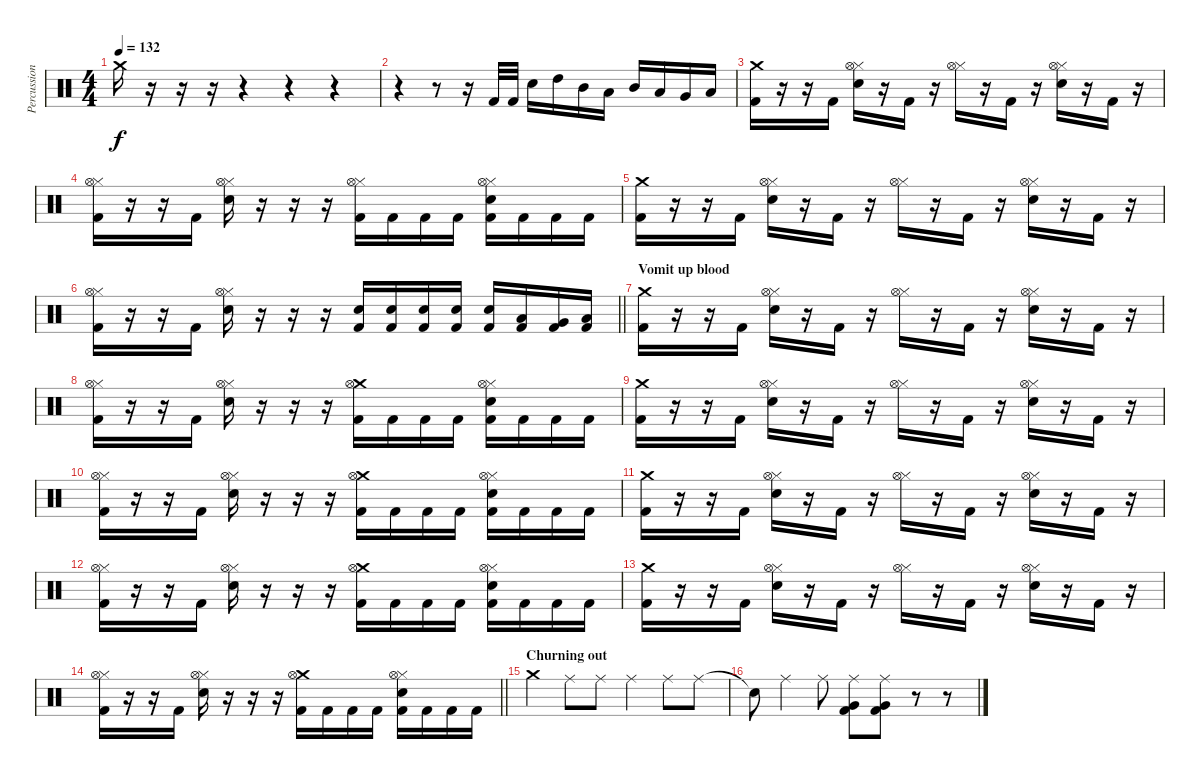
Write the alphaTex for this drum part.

\track ("Percussion" "Percussion") {instrument percussion}
\staff {score}
\articulation defaults
\ts (4 4)
\tempo 132
\clef neutral
\ks c "Crash medium (hit)".16{dy f}
r.16 r.16 r.16 r.4 r.4 r.4 |
r.4 r.8 r.16 "Kick (hit) 2".32 "Kick (hit) 2".32 "Snare (hit) 2".16 "High Tom (hit)".16 "Mid Tom (hit)".16 "Low Tom (hit)".16 "Mid Tom (hit)".16 "Low Tom (hit)".16 "Very Low Tom (hit)".16 "Low Floor Tom (hit)".16 |
("Crash medium (hit)" "Kick (hit) 2").16 r.16 r.16 "Kick (hit) 2".16 ("Hi-Hat (closed)" "Snare (hit) 2" "Hi-Hat (open)").16 r.16 "Kick (hit) 2".16 r.16 ("Hi-Hat (closed)" "Hi-Hat (open)").16 r.16 "Kick (hit) 2".16 r.16 ("Hi-Hat (closed)" "Snare (hit) 2" "Hi-Hat (open)").16 r.16 "Kick (hit) 2".16 r.16 |
("Hi-Hat (closed)" "Kick (hit) 2" "Hi-Hat (open)").16 r.16 r.16 "Kick (hit) 2".16 ("Hi-Hat (closed)" "Snare (hit) 2" "Hi-Hat (open)").16 r.16 r.16 r.16 ("Hi-Hat (closed)" "Kick (hit) 2" "Hi-Hat (open)").16 "Kick (hit) 2".16 "Kick (hit) 2".16 "Kick (hit) 2".16 ("Hi-Hat (closed)" "Snare (hit) 2" "Kick (hit) 2" "Hi-Hat (open)").16 "Kick (hit) 2".16 "Kick (hit) 2".16 "Kick (hit) 2".16 |
("Crash medium (hit)" "Kick (hit) 2").16 r.16 r.16 "Kick (hit) 2".16 ("Hi-Hat (closed)" "Snare (hit) 2" "Hi-Hat (open)").16 r.16 "Kick (hit) 2".16 r.16 ("Hi-Hat (closed)" "Hi-Hat (open)").16 r.16 "Kick (hit) 2".16 r.16 ("Hi-Hat (closed)" "Snare (hit) 2" "Hi-Hat (open)").16 r.16 "Kick (hit) 2".16 r.16 |
\barLineRight lightlight
("Hi-Hat (closed)" "Kick (hit) 2" "Hi-Hat (open)").16 r.16 r.16 "Kick (hit) 2".16 ("Hi-Hat (closed)" "Snare (hit) 2" "Hi-Hat (open)").16 r.16 r.16 r.16 ("Snare (hit) 2" "Kick (hit) 2").16 ("Snare (hit) 2" "Kick (hit) 2").16 ("Snare (hit) 2" "Kick (hit) 2").16 ("Snare (hit) 2" "Kick (hit) 2").16 ("Snare (hit) 2" "Kick (hit) 2").16 ("Low Tom (hit)" "Kick (hit) 2").16 ("Very Low Tom (hit)" "Kick (hit) 2").16 ("Low Floor Tom (hit)" "Kick (hit) 2").16 |
\section ("" "Vomit up blood")
("Crash medium (hit)" "Kick (hit) 2").16 r.16 r.16 "Kick (hit) 2".16 ("Hi-Hat (closed)" "Snare (hit) 2" "Hi-Hat (open)").16 r.16 "Kick (hit) 2".16 r.16 ("Hi-Hat (closed)" "Hi-Hat (open)").16 r.16 "Kick (hit) 2".16 r.16 ("Hi-Hat (closed)" "Snare (hit) 2" "Hi-Hat (open)").16 r.16 "Kick (hit) 2".16 r.16 |
("Hi-Hat (closed)" "Kick (hit) 2" "Hi-Hat (open)").16 r.16 r.16 "Kick (hit) 2".16 ("Hi-Hat (closed)" "Snare (hit) 2" "Hi-Hat (open)").16 r.16 r.16 r.16 ("Crash medium (hit)" "Kick (hit) 2" "Hi-Hat (open)").16 "Kick (hit) 2".16 "Kick (hit) 2".16 "Kick (hit) 2".16 ("Hi-Hat (closed)" "Snare (hit) 2" "Kick (hit) 2" "Hi-Hat (open)").16 "Kick (hit) 2".16 "Kick (hit) 2".16 "Kick (hit) 2".16 |
("Crash medium (hit)" "Kick (hit) 2").16 r.16 r.16 "Kick (hit) 2".16 ("Hi-Hat (closed)" "Snare (hit) 2" "Hi-Hat (open)").16 r.16 "Kick (hit) 2".16 r.16 ("Hi-Hat (closed)" "Hi-Hat (open)").16 r.16 "Kick (hit) 2".16 r.16 ("Hi-Hat (closed)" "Snare (hit) 2" "Hi-Hat (open)").16 r.16 "Kick (hit) 2".16 r.16 |
("Hi-Hat (closed)" "Kick (hit) 2" "Hi-Hat (open)").16 r.16 r.16 "Kick (hit) 2".16 ("Hi-Hat (closed)" "Snare (hit) 2" "Hi-Hat (open)").16 r.16 r.16 r.16 ("Crash medium (hit)" "Kick (hit) 2" "Hi-Hat (open)").16 "Kick (hit) 2".16 "Kick (hit) 2".16 "Kick (hit) 2".16 ("Hi-Hat (closed)" "Snare (hit) 2" "Kick (hit) 2" "Hi-Hat (open)").16 "Kick (hit) 2".16 "Kick (hit) 2".16 "Kick (hit) 2".16 |
("Crash medium (hit)" "Kick (hit) 2").16 r.16 r.16 "Kick (hit) 2".16 ("Hi-Hat (closed)" "Snare (hit) 2" "Hi-Hat (open)").16 r.16 "Kick (hit) 2".16 r.16 ("Hi-Hat (closed)" "Hi-Hat (open)").16 r.16 "Kick (hit) 2".16 r.16 ("Hi-Hat (closed)" "Snare (hit) 2" "Hi-Hat (open)").16 r.16 "Kick (hit) 2".16 r.16 |
("Hi-Hat (closed)" "Kick (hit) 2" "Hi-Hat (open)").16 r.16 r.16 "Kick (hit) 2".16 ("Hi-Hat (closed)" "Snare (hit) 2" "Hi-Hat (open)").16 r.16 r.16 r.16 ("Crash medium (hit)" "Kick (hit) 2" "Hi-Hat (open)").16 "Kick (hit) 2".16 "Kick (hit) 2".16 "Kick (hit) 2".16 ("Hi-Hat (closed)" "Snare (hit) 2" "Kick (hit) 2" "Hi-Hat (open)").16 "Kick (hit) 2".16 "Kick (hit) 2".16 "Kick (hit) 2".16 |
("Crash medium (hit)" "Kick (hit) 2").16 r.16 r.16 "Kick (hit) 2".16 ("Hi-Hat (closed)" "Snare (hit) 2" "Hi-Hat (open)").16 r.16 "Kick (hit) 2".16 r.16 ("Hi-Hat (closed)" "Hi-Hat (open)").16 r.16 "Kick (hit) 2".16 r.16 ("Hi-Hat (closed)" "Snare (hit) 2" "Hi-Hat (open)").16 r.16 "Kick (hit) 2".16 r.16 |
\barLineRight lightlight
("Hi-Hat (closed)" "Kick (hit) 2" "Hi-Hat (open)").16 r.16 r.16 "Kick (hit) 2".16 ("Hi-Hat (closed)" "Snare (hit) 2" "Hi-Hat (open)").16 r.16 r.16 r.16 ("Crash medium (hit)" "Kick (hit) 2" "Hi-Hat (open)").16 "Kick (hit) 2".16 "Kick (hit) 2".16 "Kick (hit) 2".16 ("Hi-Hat (closed)" "Snare (hit) 2" "Kick (hit) 2" "Hi-Hat (open)").16 "Kick (hit) 2".16 "Kick (hit) 2".16 "Kick (hit) 2".16 |
\section ("" "Churning out")
"Crash medium (hit)".4 "Ride (middle)".8 "Ride (middle)".8 "Ride (middle)".4 "Ride (middle)".8 "Ride (middle)".8 |
"Snare (hit)"{t}.8 "Ride (middle)".4 "Ride (middle)".8 ("Ride (middle)" "Very Low Tom (hit)" "Kick (hit) 2").8 ("Ride (middle)" "Very Low Tom (hit)" "Kick (hit) 2").8 r.8 r.8
